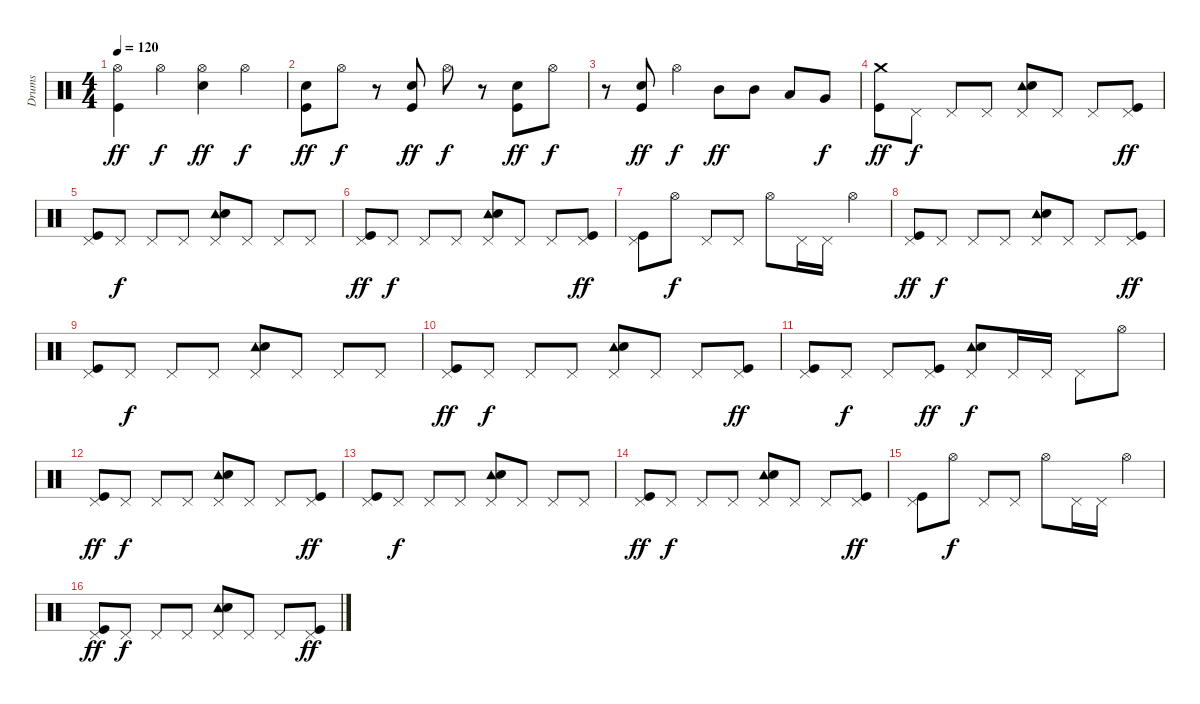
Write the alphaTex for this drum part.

\track ("Drums" "Drums") {instrument percussion}
\staff {score}
\articulation defaults
\ts (4 4)
\tempo 120
\clef neutral
\ks c
("Hi-Hat (open)" "Kick (hit)").4{dy ff} "Hi-Hat (open)".4{dy f} ("Hi-Hat (open)" "Electric Snare (hit)").4{dy ff} "Hi-Hat (open)".4{dy f} |
("Electric Snare (hit)" "Kick (hit)").8{dy ff} "Hi-Hat (open)".8{dy f} r.8 ("Electric Snare (hit)" "Kick (hit)").8{dy ff} "Hi-Hat (open)".8{dy f} r.8 ("Electric Snare (hit)" "Kick (hit)").8{dy ff} "Hi-Hat (open)".8{dy f} |
r.8 ("Electric Snare (hit)" "Kick (hit)").8{dy ff} "Hi-Hat (open)".4{dy f} "Mid Tom (hit)".8{dy ff} "Mid Tom (hit)".8 "Low Tom (hit)".8 "Very Low Tom (hit)".8{dy f} |
("Crash medium (hit)" "Kick (hit)").8{dy ff} "Pedal Hi-Hat (hit)".8{dy f} "Pedal Hi-Hat (hit)".8 "Pedal Hi-Hat (hit)".8 ("Pedal Hi-Hat (hit)" "Tambourine (hit)" "Electric Snare (hit)").8 "Pedal Hi-Hat (hit)".8 "Pedal Hi-Hat (hit)".8 ("Pedal Hi-Hat (hit)" "Kick (hit)").8{dy ff} |
("Pedal Hi-Hat (hit)" "Kick (hit)").8 "Pedal Hi-Hat (hit)".8{dy f} "Pedal Hi-Hat (hit)".8 "Pedal Hi-Hat (hit)".8 ("Pedal Hi-Hat (hit)" "Tambourine (hit)" "Electric Snare (hit)").8 "Pedal Hi-Hat (hit)".8 "Pedal Hi-Hat (hit)".8 "Pedal Hi-Hat (hit)".8 |
("Pedal Hi-Hat (hit)" "Kick (hit)").8{dy ff} "Pedal Hi-Hat (hit)".8{dy f} "Pedal Hi-Hat (hit)".8 "Pedal Hi-Hat (hit)".8 ("Pedal Hi-Hat (hit)" "Tambourine (hit)" "Electric Snare (hit)").8 "Pedal Hi-Hat (hit)".8 "Pedal Hi-Hat (hit)".8 ("Pedal Hi-Hat (hit)" "Kick (hit)").8{dy ff} |
("Pedal Hi-Hat (hit)" "Kick (hit)").8 "Hi-Hat (open)".8{dy f} "Pedal Hi-Hat (hit)".8 "Pedal Hi-Hat (hit)".8 "Hi-Hat (open)".8 "Pedal Hi-Hat (hit)".16 "Pedal Hi-Hat (hit)".16 "Hi-Hat (open)".4 |
("Pedal Hi-Hat (hit)" "Kick (hit)").8{dy ff} "Pedal Hi-Hat (hit)".8{dy f} "Pedal Hi-Hat (hit)".8 "Pedal Hi-Hat (hit)".8 ("Pedal Hi-Hat (hit)" "Tambourine (hit)" "Electric Snare (hit)").8 "Pedal Hi-Hat (hit)".8 "Pedal Hi-Hat (hit)".8 ("Pedal Hi-Hat (hit)" "Kick (hit)").8{dy ff} |
("Pedal Hi-Hat (hit)" "Kick (hit)").8 "Pedal Hi-Hat (hit)".8{dy f} "Pedal Hi-Hat (hit)".8 "Pedal Hi-Hat (hit)".8 ("Pedal Hi-Hat (hit)" "Tambourine (hit)" "Electric Snare (hit)").8 "Pedal Hi-Hat (hit)".8 "Pedal Hi-Hat (hit)".8 "Pedal Hi-Hat (hit)".8 |
("Pedal Hi-Hat (hit)" "Kick (hit)").8{dy ff} "Pedal Hi-Hat (hit)".8{dy f} "Pedal Hi-Hat (hit)".8 "Pedal Hi-Hat (hit)".8 ("Pedal Hi-Hat (hit)" "Tambourine (hit)" "Electric Snare (hit)").8 "Pedal Hi-Hat (hit)".8 "Pedal Hi-Hat (hit)".8 ("Pedal Hi-Hat (hit)" "Kick (hit)").8{dy ff} |
("Pedal Hi-Hat (hit)" "Kick (hit)").8 "Pedal Hi-Hat (hit)".8{dy f} "Pedal Hi-Hat (hit)".8 ("Pedal Hi-Hat (hit)" "Kick (hit)").8{dy ff} ("Pedal Hi-Hat (hit)" "Tambourine (hit)" "Electric Snare (hit)").8{dy f} "Pedal Hi-Hat (hit)".16 "Pedal Hi-Hat (hit)".16 "Pedal Hi-Hat (hit)".8 "Hi-Hat (open)".8 |
("Pedal Hi-Hat (hit)" "Kick (hit)").8{dy ff} "Pedal Hi-Hat (hit)".8{dy f} "Pedal Hi-Hat (hit)".8 "Pedal Hi-Hat (hit)".8 ("Pedal Hi-Hat (hit)" "Tambourine (hit)" "Electric Snare (hit)").8 "Pedal Hi-Hat (hit)".8 "Pedal Hi-Hat (hit)".8 ("Pedal Hi-Hat (hit)" "Kick (hit)").8{dy ff} |
("Pedal Hi-Hat (hit)" "Kick (hit)").8 "Pedal Hi-Hat (hit)".8{dy f} "Pedal Hi-Hat (hit)".8 "Pedal Hi-Hat (hit)".8 ("Pedal Hi-Hat (hit)" "Tambourine (hit)" "Electric Snare (hit)").8 "Pedal Hi-Hat (hit)".8 "Pedal Hi-Hat (hit)".8 "Pedal Hi-Hat (hit)".8 |
("Pedal Hi-Hat (hit)" "Kick (hit)").8{dy ff} "Pedal Hi-Hat (hit)".8{dy f} "Pedal Hi-Hat (hit)".8 "Pedal Hi-Hat (hit)".8 ("Pedal Hi-Hat (hit)" "Tambourine (hit)" "Electric Snare (hit)").8 "Pedal Hi-Hat (hit)".8 "Pedal Hi-Hat (hit)".8 ("Pedal Hi-Hat (hit)" "Kick (hit)").8{dy ff} |
("Pedal Hi-Hat (hit)" "Kick (hit)").8 "Hi-Hat (open)".8{dy f} "Pedal Hi-Hat (hit)".8 "Pedal Hi-Hat (hit)".8 "Hi-Hat (open)".8 "Pedal Hi-Hat (hit)".16 "Pedal Hi-Hat (hit)".16 "Hi-Hat (open)".4 |
("Pedal Hi-Hat (hit)" "Kick (hit)").8{dy ff volume 14} "Pedal Hi-Hat (hit)".8{dy f} "Pedal Hi-Hat (hit)".8 "Pedal Hi-Hat (hit)".8 ("Pedal Hi-Hat (hit)" "Tambourine (hit)" "Electric Snare (hit)").8 "Pedal Hi-Hat (hit)".8 "Pedal Hi-Hat (hit)".8 ("Pedal Hi-Hat (hit)" "Kick (hit)").8{dy ff}
